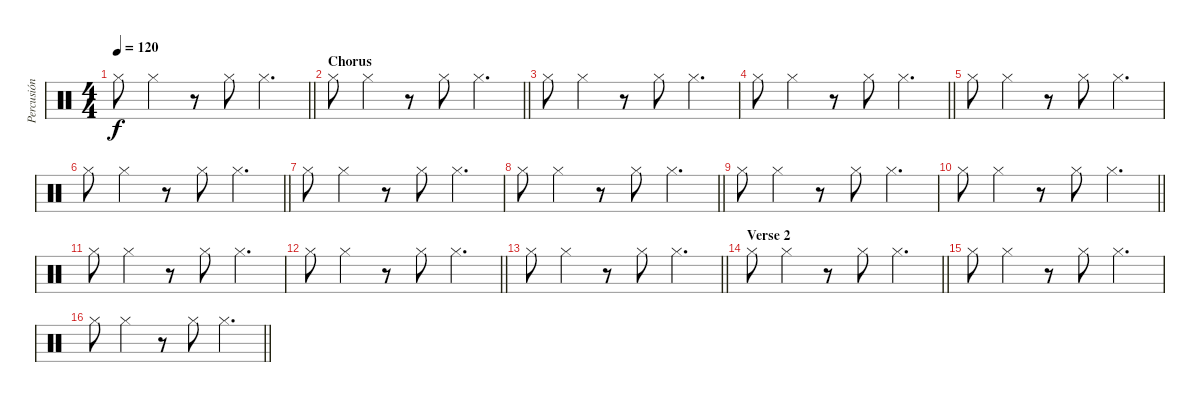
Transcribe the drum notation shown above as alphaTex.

\track ("Percusión" "Percusión") {instrument percussion}
\staff {score}
\articulation defaults
\ts (4 4)
\tempo 120
\clef neutral
\barLineRight lightlight
\ks c "Hi-Hat (closed)".8{dy f} "Hi-Hat (closed)".4
r.8 "Hi-Hat (closed)".8 "Hi-Hat (closed)".4{d} |
\section ("" "Chorus")
\barLineRight lightlight "Hi-Hat (closed)".8 "Hi-Hat (closed)".4
r.8 "Hi-Hat (closed)".8 "Hi-Hat (closed)".4{d} |
"Hi-Hat (closed)".8 "Hi-Hat (closed)".4 r.8 "Hi-Hat (closed)".8 "Hi-Hat (closed)".4{d} |
\barLineRight lightlight "Hi-Hat (closed)".8 "Hi-Hat (closed)".4
r.8 "Hi-Hat (closed)".8 "Hi-Hat (closed)".4{d} |
"Hi-Hat (closed)".8 "Hi-Hat (closed)".4 r.8 "Hi-Hat (closed)".8 "Hi-Hat (closed)".4{d} |
\barLineRight lightlight "Hi-Hat (closed)".8 "Hi-Hat (closed)".4
r.8 "Hi-Hat (closed)".8 "Hi-Hat (closed)".4{d} |
"Hi-Hat (closed)".8 "Hi-Hat (closed)".4 r.8 "Hi-Hat (closed)".8 "Hi-Hat (closed)".4{d} |
\barLineRight lightlight "Hi-Hat (closed)".8 "Hi-Hat (closed)".4
r.8 "Hi-Hat (closed)".8 "Hi-Hat (closed)".4{d} |
"Hi-Hat (closed)".8 "Hi-Hat (closed)".4 r.8 "Hi-Hat (closed)".8 "Hi-Hat (closed)".4{d} |
\barLineRight lightlight "Hi-Hat (closed)".8 "Hi-Hat (closed)".4
r.8 "Hi-Hat (closed)".8 "Hi-Hat (closed)".4{d} |
"Hi-Hat (closed)".8 "Hi-Hat (closed)".4 r.8 "Hi-Hat (closed)".8 "Hi-Hat (closed)".4{d} |
\barLineRight lightlight "Hi-Hat (closed)".8 "Hi-Hat (closed)".4
r.8 "Hi-Hat (closed)".8 "Hi-Hat (closed)".4{d} |
\barLineRight lightlight "Hi-Hat (closed)".8 "Hi-Hat (closed)".4
r.8 "Hi-Hat (closed)".8 "Hi-Hat (closed)".4{d} |
\section ("" "Verse 2")
\barLineRight lightlight "Hi-Hat (closed)".8 "Hi-Hat (closed)".4
r.8 "Hi-Hat (closed)".8 "Hi-Hat (closed)".4{d} |
"Hi-Hat (closed)".8 "Hi-Hat (closed)".4 r.8 "Hi-Hat (closed)".8 "Hi-Hat (closed)".4{d} |
\barLineRight lightlight "Hi-Hat (closed)".8 "Hi-Hat (closed)".4
r.8 "Hi-Hat (closed)".8 "Hi-Hat (closed)".4{d}
